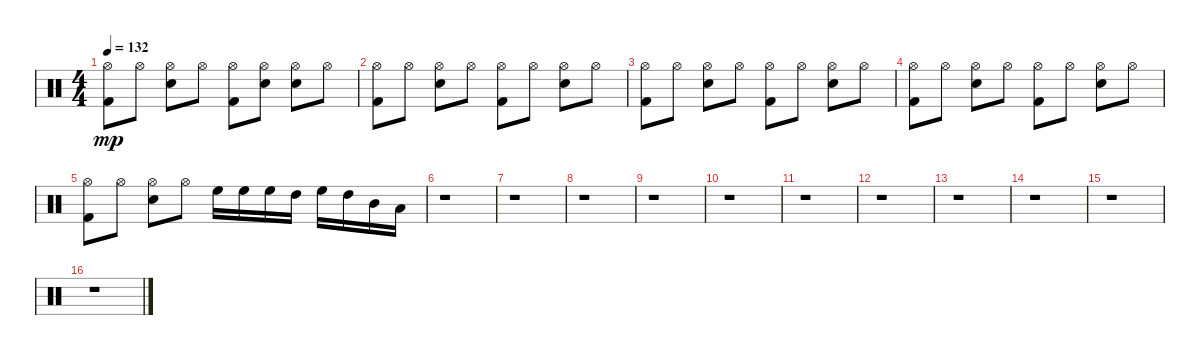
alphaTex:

\track "" {instrument percussion}
\staff {score}
\articulation defaults
\ts (4 4)
\tempo 132
\clef neutral
\ks c
("Hi-Hat (open)" "Kick (hit) 2").8{dy mp} "Hi-Hat (open)".8 ("Snare (hit) 2" "Hi-Hat (open)").8 "Hi-Hat (open)".8 ("Hi-Hat (open)" "Kick (hit) 2").8 ("Snare (hit) 2" "Hi-Hat (open)").8 ("Snare (hit) 2" "Hi-Hat (open)").8 "Hi-Hat (open)".8 |
("Hi-Hat (open)" "Kick (hit) 2").8 "Hi-Hat (open)".8 ("Snare (hit) 2" "Hi-Hat (open)").8 "Hi-Hat (open)".8 ("Hi-Hat (open)" "Kick (hit) 2").8 "Hi-Hat (open)".8 ("Snare (hit) 2" "Hi-Hat (open)").8 "Hi-Hat (open)".8 |
("Hi-Hat (open)" "Kick (hit) 2").8 "Hi-Hat (open)".8 ("Snare (hit) 2" "Hi-Hat (open)").8 "Hi-Hat (open)".8 ("Hi-Hat (open)" "Kick (hit) 2").8 "Hi-Hat (open)".8 ("Snare (hit) 2" "Hi-Hat (open)").8 "Hi-Hat (open)".8 |
("Hi-Hat (open)" "Kick (hit) 2").8 "Hi-Hat (open)".8 ("Snare (hit) 2" "Hi-Hat (open)").8 "Hi-Hat (open)".8 ("Hi-Hat (open)" "Kick (hit) 2").8 "Hi-Hat (open)".8 ("Snare (hit) 2" "Hi-Hat (open)").8 "Hi-Hat (open)".8 |
("Hi-Hat (open)" "Kick (hit) 2").8 "Hi-Hat (open)".8 ("Snare (hit) 2" "Hi-Hat (open)").8 "Hi-Hat (open)".8 "High Floor Tom (hit)".16 "High Floor Tom (hit)".16 "High Floor Tom (hit)".16 "High Tom (hit)".16 "High Floor Tom (hit)".16 "High Tom (hit)".16 "Mid Tom (hit)".16 "Low Tom (hit)".16 |
r.1 |
r.1 |
r.1 |
r.1 |
r.1 |
r.1 |
r.1 |
r.1 |
r.1 |
r.1 |
r.1
